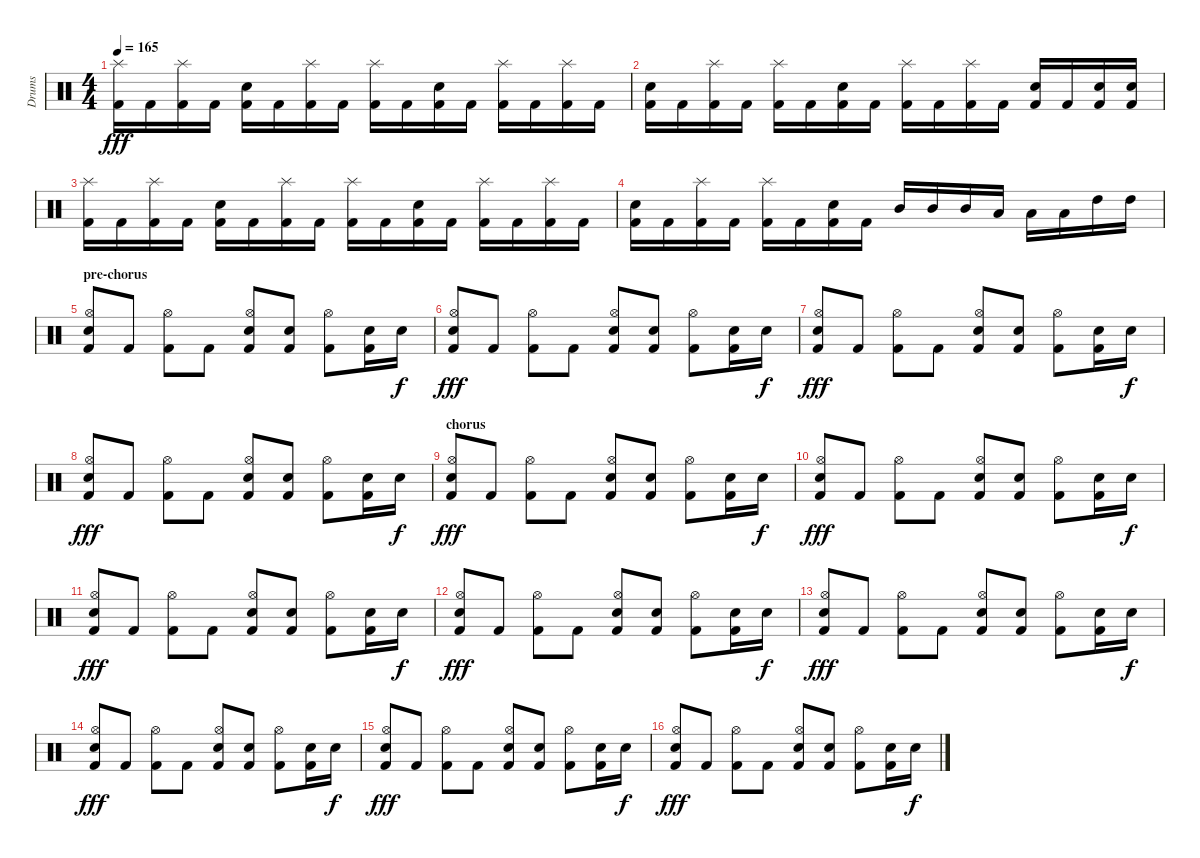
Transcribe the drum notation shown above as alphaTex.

\track ("Drums" "Drums") {instrument percussion}
\staff {score}
\articulation defaults
\ts (4 4)
\tempo 165
\clef neutral
\ks c
("Splash (hit)" "Kick (hit) 2").16{dy fff} "Kick (hit) 2".16 ("Splash (hit)" "Kick (hit) 2").16 "Kick (hit) 2".16 ("Snare (hit) 2" "Kick (hit) 2").16 "Kick (hit) 2".16 ("Splash (hit)" "Kick (hit) 2").16 "Kick (hit) 2".16 ("Splash (hit)" "Kick (hit) 2").16 "Kick (hit) 2".16 ("Snare (hit) 2" "Kick (hit) 2").16 "Kick (hit) 2".16 ("Splash (hit)" "Kick (hit) 2").16 "Kick (hit) 2".16 ("Splash (hit)" "Kick (hit) 2").16 "Kick (hit) 2".16 |
("Snare (hit) 2" "Kick (hit) 2").16 "Kick (hit) 2".16 ("Splash (hit)" "Kick (hit) 2").16 "Kick (hit) 2".16 ("Splash (hit)" "Kick (hit) 2").16 "Kick (hit) 2".16 ("Snare (hit) 2" "Kick (hit) 2").16 "Kick (hit) 2".16 ("Splash (hit)" "Kick (hit) 2").16 "Kick (hit) 2".16 ("Splash (hit)" "Kick (hit) 2").16 "Kick (hit) 2".16 ("Snare (hit) 2" "Kick (hit) 2").16 "Kick (hit) 2".16 ("Snare (hit) 2" "Kick (hit) 2").16 ("Snare (hit) 2" "Kick (hit) 2").16 |
("Splash (hit)" "Kick (hit) 2").16 "Kick (hit) 2".16 ("Splash (hit)" "Kick (hit) 2").16 "Kick (hit) 2".16 ("Snare (hit) 2" "Kick (hit) 2").16 "Kick (hit) 2".16 ("Splash (hit)" "Kick (hit) 2").16 "Kick (hit) 2".16 ("Splash (hit)" "Kick (hit) 2").16 "Kick (hit) 2".16 ("Snare (hit) 2" "Kick (hit) 2").16 "Kick (hit) 2".16 ("Splash (hit)" "Kick (hit) 2").16 "Kick (hit) 2".16 ("Splash (hit)" "Kick (hit) 2").16 "Kick (hit) 2".16 |
("Snare (hit) 2" "Kick (hit) 2").16 "Kick (hit) 2".16 ("Splash (hit)" "Kick (hit) 2").16 "Kick (hit) 2".16 ("Splash (hit)" "Kick (hit) 2").16 "Kick (hit) 2".16 ("Snare (hit) 2" "Kick (hit) 2").16 "Kick (hit) 2".16 "Mid Tom (hit)".16 "Mid Tom (hit)".16 "Mid Tom (hit)".16 "Low Tom (hit)".16 "Low Tom (hit)".16 "Low Tom (hit)".16 "High Tom (hit)".16 "High Tom (hit)".16 |
\section ("" "pre-chorus")
("Hi-Hat (open)" "Electric Snare (hit)" "Kick (hit) 2").8 "Kick (hit) 2".8 ("Hi-Hat (open)" "Kick (hit) 2").8 "Kick (hit) 2".8 ("Hi-Hat (open)" "Electric Snare (hit)" "Kick (hit) 2").8 ("Electric Snare (hit)" "Kick (hit) 2").8 ("Hi-Hat (open)" "Kick (hit) 2").8 ("Electric Snare (hit)" "Kick (hit) 2").16 "Electric Snare (hit)".16{dy f} |
("Hi-Hat (open)" "Electric Snare (hit)" "Kick (hit) 2").8{dy fff} "Kick (hit) 2".8 ("Hi-Hat (open)" "Kick (hit) 2").8 "Kick (hit) 2".8 ("Hi-Hat (open)" "Electric Snare (hit)" "Kick (hit) 2").8 ("Electric Snare (hit)" "Kick (hit) 2").8 ("Hi-Hat (open)" "Kick (hit) 2").8 ("Electric Snare (hit)" "Kick (hit) 2").16 "Electric Snare (hit)".16{dy f} |
("Hi-Hat (open)" "Electric Snare (hit)" "Kick (hit) 2").8{dy fff} "Kick (hit) 2".8 ("Hi-Hat (open)" "Kick (hit) 2").8 "Kick (hit) 2".8 ("Hi-Hat (open)" "Electric Snare (hit)" "Kick (hit) 2").8 ("Electric Snare (hit)" "Kick (hit) 2").8 ("Hi-Hat (open)" "Kick (hit) 2").8 ("Electric Snare (hit)" "Kick (hit) 2").16 "Electric Snare (hit)".16{dy f} |
("Hi-Hat (open)" "Electric Snare (hit)" "Kick (hit) 2").8{dy fff} "Kick (hit) 2".8 ("Hi-Hat (open)" "Kick (hit) 2").8 "Kick (hit) 2".8 ("Hi-Hat (open)" "Electric Snare (hit)" "Kick (hit) 2").8 ("Electric Snare (hit)" "Kick (hit) 2").8 ("Hi-Hat (open)" "Kick (hit) 2").8 ("Electric Snare (hit)" "Kick (hit) 2").16 "Electric Snare (hit)".16{dy f} |
\section ("" "chorus")
("Hi-Hat (open)" "Electric Snare (hit)" "Kick (hit) 2").8{dy fff} "Kick (hit) 2".8 ("Hi-Hat (open)" "Kick (hit) 2").8 "Kick (hit) 2".8 ("Hi-Hat (open)" "Electric Snare (hit)" "Kick (hit) 2").8 ("Electric Snare (hit)" "Kick (hit) 2").8 ("Hi-Hat (open)" "Kick (hit) 2").8 ("Electric Snare (hit)" "Kick (hit) 2").16 "Electric Snare (hit)".16{dy f} |
("Hi-Hat (open)" "Electric Snare (hit)" "Kick (hit) 2").8{dy fff} "Kick (hit) 2".8 ("Hi-Hat (open)" "Kick (hit) 2").8 "Kick (hit) 2".8 ("Hi-Hat (open)" "Electric Snare (hit)" "Kick (hit) 2").8 ("Electric Snare (hit)" "Kick (hit) 2").8 ("Hi-Hat (open)" "Kick (hit) 2").8 ("Electric Snare (hit)" "Kick (hit) 2").16 "Electric Snare (hit)".16{dy f} |
("Hi-Hat (open)" "Electric Snare (hit)" "Kick (hit) 2").8{dy fff} "Kick (hit) 2".8 ("Hi-Hat (open)" "Kick (hit) 2").8 "Kick (hit) 2".8 ("Hi-Hat (open)" "Electric Snare (hit)" "Kick (hit) 2").8 ("Electric Snare (hit)" "Kick (hit) 2").8 ("Hi-Hat (open)" "Kick (hit) 2").8 ("Electric Snare (hit)" "Kick (hit) 2").16 "Electric Snare (hit)".16{dy f} |
("Hi-Hat (open)" "Electric Snare (hit)" "Kick (hit) 2").8{dy fff} "Kick (hit) 2".8 ("Hi-Hat (open)" "Kick (hit) 2").8 "Kick (hit) 2".8 ("Hi-Hat (open)" "Electric Snare (hit)" "Kick (hit) 2").8 ("Electric Snare (hit)" "Kick (hit) 2").8 ("Hi-Hat (open)" "Kick (hit) 2").8 ("Electric Snare (hit)" "Kick (hit) 2").16 "Electric Snare (hit)".16{dy f} |
("Hi-Hat (open)" "Electric Snare (hit)" "Kick (hit) 2").8{dy fff} "Kick (hit) 2".8 ("Hi-Hat (open)" "Kick (hit) 2").8 "Kick (hit) 2".8 ("Hi-Hat (open)" "Electric Snare (hit)" "Kick (hit) 2").8 ("Electric Snare (hit)" "Kick (hit) 2").8 ("Hi-Hat (open)" "Kick (hit) 2").8 ("Electric Snare (hit)" "Kick (hit) 2").16 "Electric Snare (hit)".16{dy f} |
("Hi-Hat (open)" "Electric Snare (hit)" "Kick (hit) 2").8{dy fff} "Kick (hit) 2".8 ("Hi-Hat (open)" "Kick (hit) 2").8 "Kick (hit) 2".8 ("Hi-Hat (open)" "Electric Snare (hit)" "Kick (hit) 2").8 ("Electric Snare (hit)" "Kick (hit) 2").8 ("Hi-Hat (open)" "Kick (hit) 2").8 ("Electric Snare (hit)" "Kick (hit) 2").16 "Electric Snare (hit)".16{dy f} |
("Hi-Hat (open)" "Electric Snare (hit)" "Kick (hit) 2").8{dy fff} "Kick (hit) 2".8 ("Hi-Hat (open)" "Kick (hit) 2").8 "Kick (hit) 2".8 ("Hi-Hat (open)" "Electric Snare (hit)" "Kick (hit) 2").8 ("Electric Snare (hit)" "Kick (hit) 2").8 ("Hi-Hat (open)" "Kick (hit) 2").8 ("Electric Snare (hit)" "Kick (hit) 2").16 "Electric Snare (hit)".16{dy f} |
("Hi-Hat (open)" "Electric Snare (hit)" "Kick (hit) 2").8{dy fff} "Kick (hit) 2".8 ("Hi-Hat (open)" "Kick (hit) 2").8 "Kick (hit) 2".8 ("Hi-Hat (open)" "Electric Snare (hit)" "Kick (hit) 2").8 ("Electric Snare (hit)" "Kick (hit) 2").8 ("Hi-Hat (open)" "Kick (hit) 2").8 ("Electric Snare (hit)" "Kick (hit) 2").16 "Electric Snare (hit)".16{dy f}
